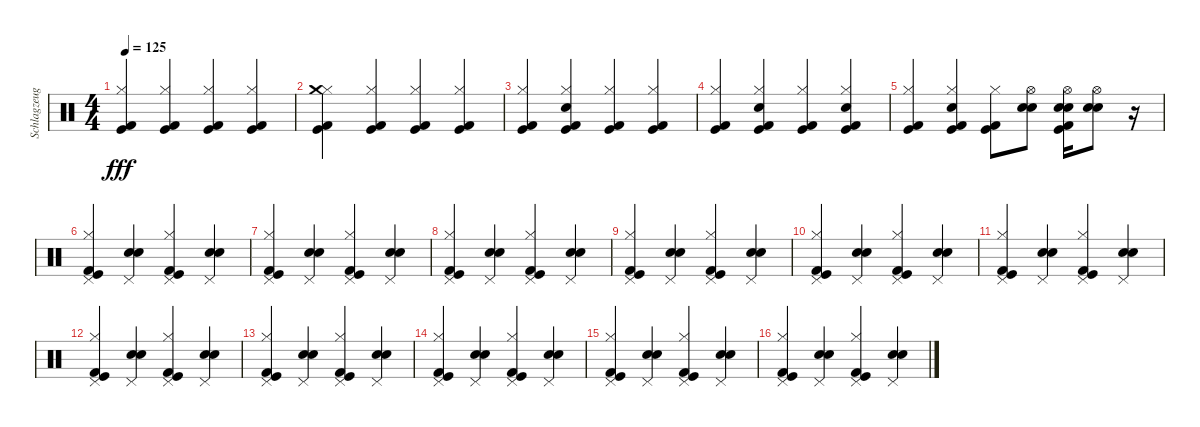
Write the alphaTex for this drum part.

\track ("Schlagzeug" "Schlagzeug") {instrument percussion}
\staff {score}
\articulation defaults
\ts (4 4)
\tempo 125
\clef neutral
\ks c
("Kick (hit)" "Hi-Hat (closed)" "Kick (hit) 2").4{dy fff} ("Kick (hit)" "Hi-Hat (closed)" "Kick (hit) 2").4 ("Kick (hit)" "Hi-Hat (closed)" "Kick (hit) 2").4 ("Kick (hit)" "Hi-Hat (closed)" "Kick (hit) 2").4 |
("Kick (hit)" "Hi-Hat (closed)" "Kick (hit) 2" "Crash medium (hit)").4 ("Kick (hit)" "Hi-Hat (closed)" "Kick (hit) 2").4 ("Kick (hit)" "Hi-Hat (closed)" "Kick (hit) 2").4 ("Kick (hit)" "Hi-Hat (closed)" "Kick (hit) 2").4 |
("Kick (hit)" "Hi-Hat (closed)" "Kick (hit) 2").4 ("Kick (hit)" "Hi-Hat (closed)" "Kick (hit) 2" "Electric Snare (hit)").4 ("Kick (hit)" "Hi-Hat (closed)" "Kick (hit) 2").4 ("Kick (hit)" "Hi-Hat (closed)" "Kick (hit) 2").4 |
("Kick (hit)" "Hi-Hat (closed)" "Kick (hit) 2").4 ("Kick (hit)" "Hi-Hat (closed)" "Kick (hit) 2" "Snare (hit) 2").4 ("Kick (hit)" "Hi-Hat (closed)" "Kick (hit) 2").4 ("Kick (hit)" "Hi-Hat (closed)" "Kick (hit) 2" "Snare (hit) 2").4 |
("Kick (hit)" "Hi-Hat (closed)" "Kick (hit) 2").4 ("Kick (hit)" "Hi-Hat (closed)" "Kick (hit) 2" "Snare (hit) 2").4 ("Kick (hit)" "Hi-Hat (closed)" "Kick (hit) 2").8 ("Snare (hit) 2" "Hi-Hat (open)" "Electric Snare (hit)").8 ("Kick (hit)" "Kick (hit) 2" "Snare (hit) 2" "Hi-Hat (open)" "Electric Snare (hit)").16 ("Snare (hit) 2" "Hi-Hat (open)" "Electric Snare (hit)").8 r.16 |
("Pedal Hi-Hat (hit)" "Kick (hit)" "Kick (hit) 2" "Hi-Hat (closed)").4 ("Pedal Hi-Hat (hit)" "Snare (hit) 2" "Electric Snare (hit)").4 ("Pedal Hi-Hat (hit)" "Kick (hit)" "Kick (hit) 2" "Hi-Hat (closed)").4 ("Pedal Hi-Hat (hit)" "Snare (hit) 2" "Electric Snare (hit)").4 |
("Pedal Hi-Hat (hit)" "Kick (hit)" "Kick (hit) 2" "Hi-Hat (closed)").4 ("Pedal Hi-Hat (hit)" "Snare (hit) 2" "Electric Snare (hit)").4 ("Pedal Hi-Hat (hit)" "Kick (hit)" "Kick (hit) 2" "Hi-Hat (closed)").4 ("Pedal Hi-Hat (hit)" "Snare (hit) 2" "Electric Snare (hit)").4 |
("Pedal Hi-Hat (hit)" "Kick (hit)" "Kick (hit) 2" "Hi-Hat (closed)").4 ("Pedal Hi-Hat (hit)" "Snare (hit) 2" "Electric Snare (hit)").4 ("Pedal Hi-Hat (hit)" "Kick (hit)" "Kick (hit) 2" "Hi-Hat (closed)").4 ("Pedal Hi-Hat (hit)" "Snare (hit) 2" "Electric Snare (hit)").4 |
("Pedal Hi-Hat (hit)" "Kick (hit)" "Kick (hit) 2" "Hi-Hat (closed)").4 ("Pedal Hi-Hat (hit)" "Snare (hit) 2" "Electric Snare (hit)").4 ("Pedal Hi-Hat (hit)" "Kick (hit)" "Kick (hit) 2" "Hi-Hat (closed)").4 ("Pedal Hi-Hat (hit)" "Snare (hit) 2" "Electric Snare (hit)").4 |
("Pedal Hi-Hat (hit)" "Kick (hit)" "Kick (hit) 2" "Hi-Hat (closed)").4 ("Pedal Hi-Hat (hit)" "Snare (hit) 2" "Electric Snare (hit)").4 ("Pedal Hi-Hat (hit)" "Kick (hit)" "Kick (hit) 2" "Hi-Hat (closed)").4 ("Pedal Hi-Hat (hit)" "Snare (hit) 2" "Electric Snare (hit)").4 |
("Pedal Hi-Hat (hit)" "Kick (hit)" "Kick (hit) 2" "Hi-Hat (closed)").4 ("Pedal Hi-Hat (hit)" "Snare (hit) 2" "Electric Snare (hit)").4 ("Pedal Hi-Hat (hit)" "Kick (hit)" "Kick (hit) 2" "Hi-Hat (closed)").4 ("Pedal Hi-Hat (hit)" "Snare (hit) 2" "Electric Snare (hit)").4 |
("Pedal Hi-Hat (hit)" "Kick (hit)" "Kick (hit) 2" "Hi-Hat (closed)").4 ("Pedal Hi-Hat (hit)" "Snare (hit) 2" "Electric Snare (hit)").4 ("Pedal Hi-Hat (hit)" "Kick (hit)" "Kick (hit) 2" "Hi-Hat (closed)").4 ("Pedal Hi-Hat (hit)" "Snare (hit) 2" "Electric Snare (hit)").4 |
("Pedal Hi-Hat (hit)" "Kick (hit)" "Kick (hit) 2" "Hi-Hat (closed)").4 ("Pedal Hi-Hat (hit)" "Snare (hit) 2" "Electric Snare (hit)").4 ("Pedal Hi-Hat (hit)" "Kick (hit)" "Kick (hit) 2" "Hi-Hat (closed)").4 ("Pedal Hi-Hat (hit)" "Snare (hit) 2" "Electric Snare (hit)").4 |
("Pedal Hi-Hat (hit)" "Kick (hit)" "Kick (hit) 2" "Hi-Hat (closed)").4 ("Pedal Hi-Hat (hit)" "Snare (hit) 2" "Electric Snare (hit)").4 ("Pedal Hi-Hat (hit)" "Kick (hit)" "Kick (hit) 2" "Hi-Hat (closed)").4 ("Pedal Hi-Hat (hit)" "Snare (hit) 2" "Electric Snare (hit)").4 |
("Pedal Hi-Hat (hit)" "Kick (hit)" "Kick (hit) 2" "Hi-Hat (closed)").4 ("Pedal Hi-Hat (hit)" "Snare (hit) 2" "Electric Snare (hit)").4 ("Pedal Hi-Hat (hit)" "Kick (hit)" "Kick (hit) 2" "Hi-Hat (closed)").4 ("Pedal Hi-Hat (hit)" "Snare (hit) 2" "Electric Snare (hit)").4 |
("Pedal Hi-Hat (hit)" "Kick (hit)" "Kick (hit) 2" "Hi-Hat (closed)").4 ("Pedal Hi-Hat (hit)" "Snare (hit) 2" "Electric Snare (hit)").4 ("Pedal Hi-Hat (hit)" "Kick (hit)" "Kick (hit) 2" "Hi-Hat (closed)").4 ("Pedal Hi-Hat (hit)" "Snare (hit) 2" "Electric Snare (hit)").4
